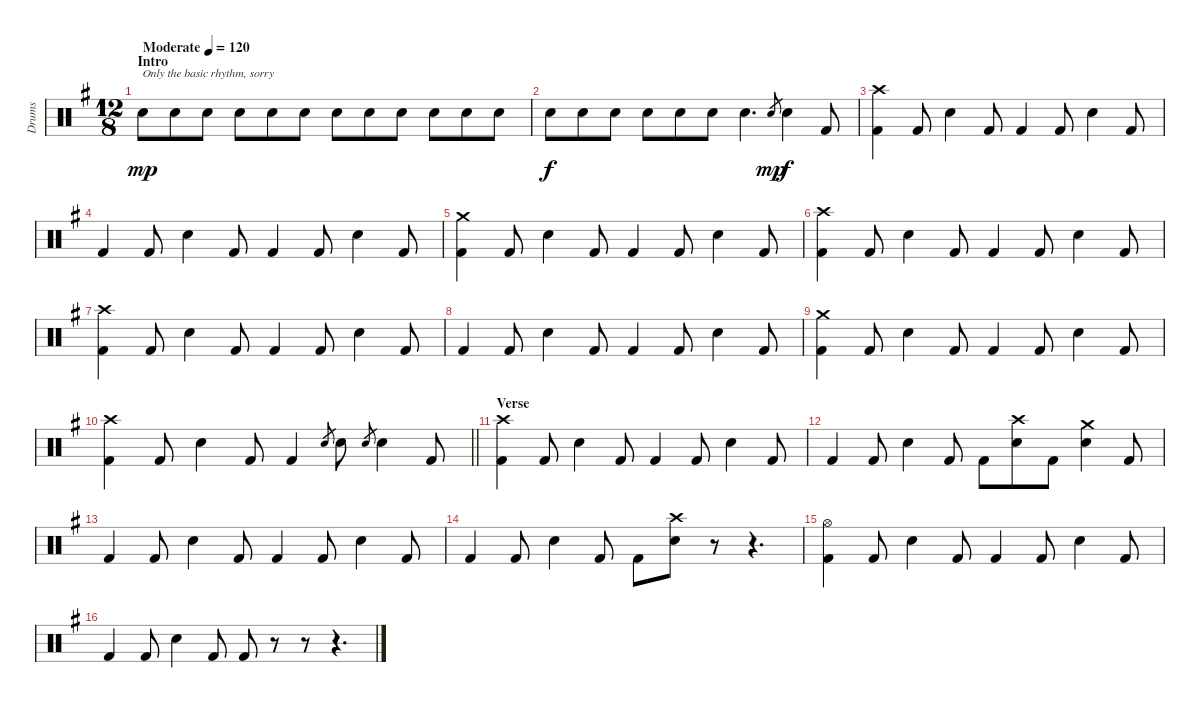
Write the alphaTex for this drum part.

\track ("Drums" "Drums") {instrument percussion}
\staff {score}
\articulation defaults
\ts (12 8)
\section ("" "Intro")
\tempo (120 "Moderate")
\clef neutral
\ks eminor "Snare (hit) 2".8{txt "Only the basic rhythm, sorry" dy mp} "Snare (hit) 2".8 "Snare (hit) 2".8 "Snare (hit) 2".8 "Snare (hit) 2".8 "Snare (hit) 2".8 "Snare (hit) 2".8 "Snare (hit) 2".8 "Snare (hit) 2".8 "Snare (hit) 2".8 "Snare (hit) 2".8 "Snare (hit) 2".8
|
"Snare (hit) 2".8{dy f} "Snare (hit) 2".8 "Snare (hit) 2".8 "Snare (hit) 2".8 "Snare (hit) 2".8 "Snare (hit) 2".8 "Snare (hit) 2".4{d} "Snare (hit) 2".8{gr dy mp} "Snare (hit) 2".4{dy f} "Kick (hit) 2".8 |
("Kick (hit) 2" "Crash high (hit)").4 "Kick (hit) 2".8 "Snare (hit) 2".4 "Kick (hit) 2".8 "Kick (hit) 2".4 "Kick (hit) 2".8 "Snare (hit) 2".4 "Kick (hit) 2".8 |
"Kick (hit) 2".4 "Kick (hit) 2".8 "Snare (hit) 2".4 "Kick (hit) 2".8 "Kick (hit) 2".4 "Kick (hit) 2".8 "Snare (hit) 2".4 "Kick (hit) 2".8 |
("Kick (hit) 2" "Crash medium (hit)").4 "Kick (hit) 2".8 "Snare (hit) 2".4 "Kick (hit) 2".8 "Kick (hit) 2".4 "Kick (hit) 2".8 "Snare (hit) 2".4 "Kick (hit) 2".8 |
("Kick (hit) 2" "Crash high (hit)").4 "Kick (hit) 2".8 "Snare (hit) 2".4 "Kick (hit) 2".8 "Kick (hit) 2".4 "Kick (hit) 2".8 "Snare (hit) 2".4 "Kick (hit) 2".8 |
("Kick (hit) 2" "Crash high (hit)").4 "Kick (hit) 2".8 "Snare (hit) 2".4 "Kick (hit) 2".8 "Kick (hit) 2".4 "Kick (hit) 2".8 "Snare (hit) 2".4 "Kick (hit) 2".8 |
"Kick (hit) 2".4 "Kick (hit) 2".8 "Snare (hit) 2".4 "Kick (hit) 2".8 "Kick (hit) 2".4 "Kick (hit) 2".8 "Snare (hit) 2".4 "Kick (hit) 2".8 |
("Kick (hit) 2" "Crash medium (hit)").4 "Kick (hit) 2".8 "Snare (hit) 2".4 "Kick (hit) 2".8 "Kick (hit) 2".4 "Kick (hit) 2".8 "Snare (hit) 2".4 "Kick (hit) 2".8 |
\barLineRight lightlight
("Kick (hit) 2" "Crash high (hit)").4 "Kick (hit) 2".8 "Snare (hit) 2".4 "Kick (hit) 2".8 "Kick (hit) 2".4 "Snare (hit) 2".8{gr} "Snare (hit) 2".8 "Snare (hit) 2".8{gr} "Snare (hit) 2".4 "Kick (hit) 2".8 |
\section ("" "Verse")
("Kick (hit) 2" "Crash high (hit)").4 "Kick (hit) 2".8 "Snare (hit) 2".4 "Kick (hit) 2".8 "Kick (hit) 2".4 "Kick (hit) 2".8 "Snare (hit) 2".4 "Kick (hit) 2".8 |
"Kick (hit) 2".4 "Kick (hit) 2".8 "Snare (hit) 2".4 "Kick (hit) 2".8 "Kick (hit) 2".8 ("Snare (hit) 2" "Crash high (hit)").8 "Kick (hit) 2".8 ("Snare (hit) 2" "Crash medium (hit)").4 "Kick (hit) 2".8 |
"Kick (hit) 2".4 "Kick (hit) 2".8 "Snare (hit) 2".4 "Kick (hit) 2".8 "Kick (hit) 2".4 "Kick (hit) 2".8 "Snare (hit) 2".4 "Kick (hit) 2".8 |
"Kick (hit) 2".4 "Kick (hit) 2".8 "Snare (hit) 2".4 "Kick (hit) 2".8 "Kick (hit) 2".8 ("Snare (hit) 2" "Crash high (hit)").8 r.8 r.4{d} |
("Kick (hit) 2" "Hi-Hat (open)").4 "Kick (hit) 2".8 "Snare (hit) 2".4 "Kick (hit) 2".8 "Kick (hit) 2".4 "Kick (hit) 2".8 "Snare (hit) 2".4 "Kick (hit) 2".8 |
"Kick (hit) 2".4 "Kick (hit) 2".8 "Snare (hit) 2".4 "Kick (hit) 2".8 "Kick (hit) 2".8 r.8 r.8 r.4{d}
